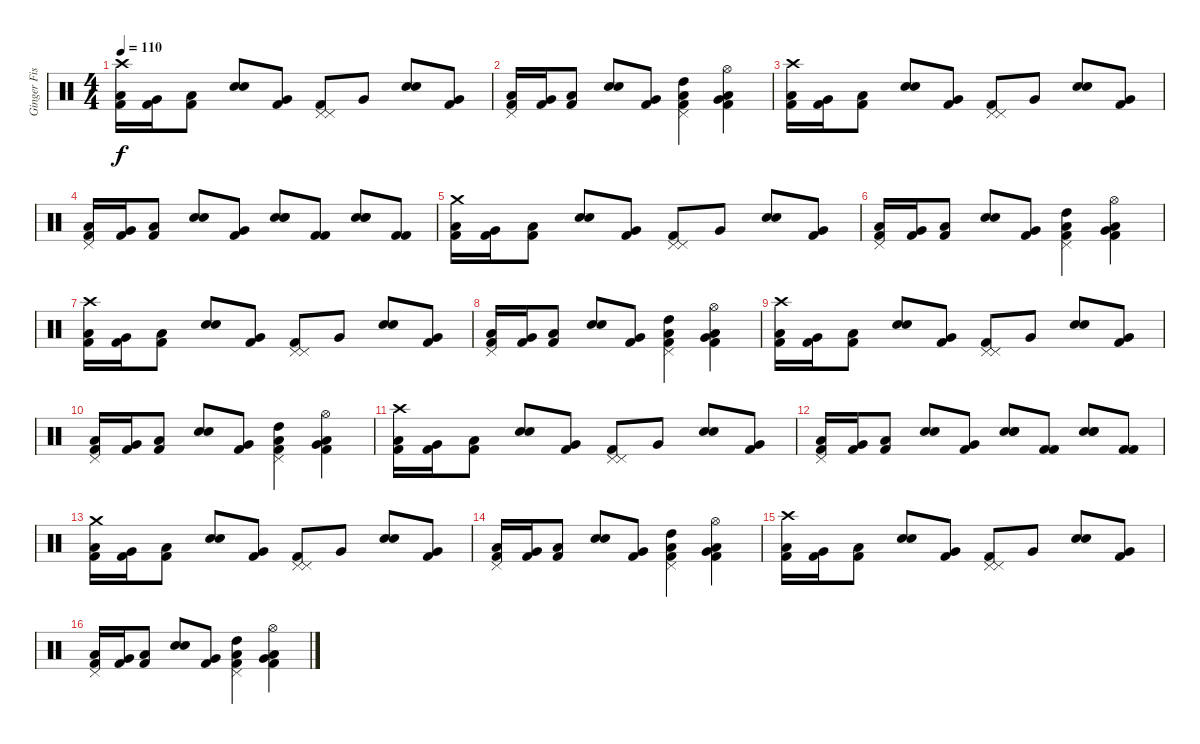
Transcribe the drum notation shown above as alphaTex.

\track ("Ginger Fish" "Ginger Fis") {instrument percussion}
\staff {score}
\articulation defaults
\ts (4 4)
\tempo 110
\clef neutral
\ks c
("Crash high (hit)" "Low Tom (hit)" "Kick (hit) 2").16{dy f} ("Very Low Tom (hit)" "Kick (hit) 2").16 ("Low Tom (hit)" "Kick (hit) 2").8 ("Electric Snare (hit)" "Electric Snare (hit)").8 ("Very Low Tom (hit)" "Kick (hit) 2").8 ("Pedal Hi-Hat (hit)" "Pedal Hi-Hat (hit)" "Kick (hit) 2").8 "Very Low Tom (hit)".8 ("Electric Snare (hit)" "Electric Snare (hit)").8 ("Very Low Tom (hit)" "Kick (hit) 2").8 |
("Pedal Hi-Hat (hit)" "Low Tom (hit)" "Kick (hit) 2").16 ("Very Low Tom (hit)" "Kick (hit) 2").16 ("Low Tom (hit)" "Kick (hit) 2").8 ("Electric Snare (hit)" "Electric Snare (hit)").8 ("Very Low Tom (hit)" "Kick (hit) 2").8 ("Pedal Hi-Hat (hit)" "High Tom (hit)" "Low Tom (hit)" "Kick (hit) 2").4 ("Hi-Hat (open)" "Very Low Tom (hit)" "Low Tom (hit)" "Kick (hit) 2").4 |
("Crash high (hit)" "Low Tom (hit)" "Kick (hit) 2").16 ("Very Low Tom (hit)" "Kick (hit) 2").16 ("Low Tom (hit)" "Kick (hit) 2").8 ("Electric Snare (hit)" "Electric Snare (hit)").8 ("Very Low Tom (hit)" "Kick (hit) 2").8 ("Pedal Hi-Hat (hit)" "Pedal Hi-Hat (hit)" "Kick (hit) 2").8 "Very Low Tom (hit)".8 ("Electric Snare (hit)" "Electric Snare (hit)").8 ("Very Low Tom (hit)" "Kick (hit) 2").8 |
("Pedal Hi-Hat (hit)" "Low Tom (hit)" "Kick (hit) 2").16 ("Very Low Tom (hit)" "Kick (hit) 2").16 ("Low Tom (hit)" "Kick (hit) 2").8 ("Electric Snare (hit)" "Electric Snare (hit)").8 ("Very Low Tom (hit)" "Kick (hit) 2").8 ("Electric Snare (hit)" "Electric Snare (hit)" "Electric Snare (hit)").8 ("Kick (hit) 2" "Kick (hit) 2").8 ("Electric Snare (hit)" "Electric Snare (hit)" "Electric Snare (hit)").8 ("Kick (hit) 2" "Kick (hit) 2").8 |
("Crash medium (hit)" "Low Tom (hit)" "Kick (hit) 2").16 ("Very Low Tom (hit)" "Kick (hit) 2").16 ("Low Tom (hit)" "Kick (hit) 2").8 ("Electric Snare (hit)" "Electric Snare (hit)").8 ("Very Low Tom (hit)" "Kick (hit) 2").8 ("Pedal Hi-Hat (hit)" "Pedal Hi-Hat (hit)" "Kick (hit) 2").8 "Very Low Tom (hit)".8 ("Electric Snare (hit)" "Electric Snare (hit)").8 ("Very Low Tom (hit)" "Kick (hit) 2").8 |
("Pedal Hi-Hat (hit)" "Low Tom (hit)" "Kick (hit) 2").16 ("Very Low Tom (hit)" "Kick (hit) 2").16 ("Low Tom (hit)" "Kick (hit) 2").8 ("Electric Snare (hit)" "Electric Snare (hit)").8 ("Very Low Tom (hit)" "Kick (hit) 2").8 ("Pedal Hi-Hat (hit)" "High Tom (hit)" "Low Tom (hit)" "Kick (hit) 2").4 ("Hi-Hat (open)" "Very Low Tom (hit)" "Low Tom (hit)" "Kick (hit) 2").4 |
("Crash high (hit)" "Low Tom (hit)" "Kick (hit) 2").16 ("Very Low Tom (hit)" "Kick (hit) 2").16 ("Low Tom (hit)" "Kick (hit) 2").8 ("Electric Snare (hit)" "Electric Snare (hit)").8 ("Very Low Tom (hit)" "Kick (hit) 2").8 ("Pedal Hi-Hat (hit)" "Pedal Hi-Hat (hit)" "Kick (hit) 2").8 "Very Low Tom (hit)".8 ("Electric Snare (hit)" "Electric Snare (hit)").8 ("Very Low Tom (hit)" "Kick (hit) 2").8 |
("Pedal Hi-Hat (hit)" "Low Tom (hit)" "Kick (hit) 2").16 ("Very Low Tom (hit)" "Kick (hit) 2").16 ("Low Tom (hit)" "Kick (hit) 2").8 ("Electric Snare (hit)" "Electric Snare (hit)").8 ("Very Low Tom (hit)" "Kick (hit) 2").8 ("Pedal Hi-Hat (hit)" "High Tom (hit)" "Low Tom (hit)" "Kick (hit) 2").4 ("Hi-Hat (open)" "Very Low Tom (hit)" "Low Tom (hit)" "Kick (hit) 2").4 |
("Crash high (hit)" "Low Tom (hit)" "Kick (hit) 2").16 ("Very Low Tom (hit)" "Kick (hit) 2").16 ("Low Tom (hit)" "Kick (hit) 2").8 ("Electric Snare (hit)" "Electric Snare (hit)").8 ("Very Low Tom (hit)" "Kick (hit) 2").8 ("Pedal Hi-Hat (hit)" "Pedal Hi-Hat (hit)" "Kick (hit) 2").8 "Very Low Tom (hit)".8 ("Electric Snare (hit)" "Electric Snare (hit)").8 ("Very Low Tom (hit)" "Kick (hit) 2").8 |
("Pedal Hi-Hat (hit)" "Low Tom (hit)" "Kick (hit) 2").16 ("Very Low Tom (hit)" "Kick (hit) 2").16 ("Low Tom (hit)" "Kick (hit) 2").8 ("Electric Snare (hit)" "Electric Snare (hit)").8 ("Very Low Tom (hit)" "Kick (hit) 2").8 ("Pedal Hi-Hat (hit)" "High Tom (hit)" "Low Tom (hit)" "Kick (hit) 2").4 ("Hi-Hat (open)" "Very Low Tom (hit)" "Low Tom (hit)" "Kick (hit) 2").4 |
("Crash high (hit)" "Low Tom (hit)" "Kick (hit) 2").16 ("Very Low Tom (hit)" "Kick (hit) 2").16 ("Low Tom (hit)" "Kick (hit) 2").8 ("Electric Snare (hit)" "Electric Snare (hit)").8 ("Very Low Tom (hit)" "Kick (hit) 2").8 ("Pedal Hi-Hat (hit)" "Pedal Hi-Hat (hit)" "Kick (hit) 2").8 "Very Low Tom (hit)".8 ("Electric Snare (hit)" "Electric Snare (hit)").8 ("Very Low Tom (hit)" "Kick (hit) 2").8 |
("Pedal Hi-Hat (hit)" "Low Tom (hit)" "Kick (hit) 2").16 ("Very Low Tom (hit)" "Kick (hit) 2").16 ("Low Tom (hit)" "Kick (hit) 2").8 ("Electric Snare (hit)" "Electric Snare (hit)").8 ("Very Low Tom (hit)" "Kick (hit) 2").8 ("Electric Snare (hit)" "Electric Snare (hit)" "Electric Snare (hit)").8 ("Kick (hit) 2" "Kick (hit) 2").8 ("Electric Snare (hit)" "Electric Snare (hit)" "Electric Snare (hit)").8 ("Kick (hit) 2" "Kick (hit) 2").8 |
("Crash medium (hit)" "Low Tom (hit)" "Kick (hit) 2").16 ("Very Low Tom (hit)" "Kick (hit) 2").16 ("Low Tom (hit)" "Kick (hit) 2").8 ("Electric Snare (hit)" "Electric Snare (hit)").8 ("Very Low Tom (hit)" "Kick (hit) 2").8 ("Pedal Hi-Hat (hit)" "Pedal Hi-Hat (hit)" "Kick (hit) 2").8 "Very Low Tom (hit)".8 ("Electric Snare (hit)" "Electric Snare (hit)").8 ("Very Low Tom (hit)" "Kick (hit) 2").8 |
("Pedal Hi-Hat (hit)" "Low Tom (hit)" "Kick (hit) 2").16 ("Very Low Tom (hit)" "Kick (hit) 2").16 ("Low Tom (hit)" "Kick (hit) 2").8 ("Electric Snare (hit)" "Electric Snare (hit)").8 ("Very Low Tom (hit)" "Kick (hit) 2").8 ("Pedal Hi-Hat (hit)" "High Tom (hit)" "Low Tom (hit)" "Kick (hit) 2").4 ("Hi-Hat (open)" "Very Low Tom (hit)" "Low Tom (hit)" "Kick (hit) 2").4 |
("Crash high (hit)" "Low Tom (hit)" "Kick (hit) 2").16 ("Very Low Tom (hit)" "Kick (hit) 2").16 ("Low Tom (hit)" "Kick (hit) 2").8 ("Electric Snare (hit)" "Electric Snare (hit)").8 ("Very Low Tom (hit)" "Kick (hit) 2").8 ("Pedal Hi-Hat (hit)" "Pedal Hi-Hat (hit)" "Kick (hit) 2").8 "Very Low Tom (hit)".8 ("Electric Snare (hit)" "Electric Snare (hit)").8 ("Very Low Tom (hit)" "Kick (hit) 2").8 |
("Pedal Hi-Hat (hit)" "Low Tom (hit)" "Kick (hit) 2").16 ("Very Low Tom (hit)" "Kick (hit) 2").16 ("Low Tom (hit)" "Kick (hit) 2").8 ("Electric Snare (hit)" "Electric Snare (hit)").8 ("Very Low Tom (hit)" "Kick (hit) 2").8 ("Pedal Hi-Hat (hit)" "High Tom (hit)" "Low Tom (hit)" "Kick (hit) 2").4 ("Hi-Hat (open)" "Very Low Tom (hit)" "Low Tom (hit)" "Kick (hit) 2").4
